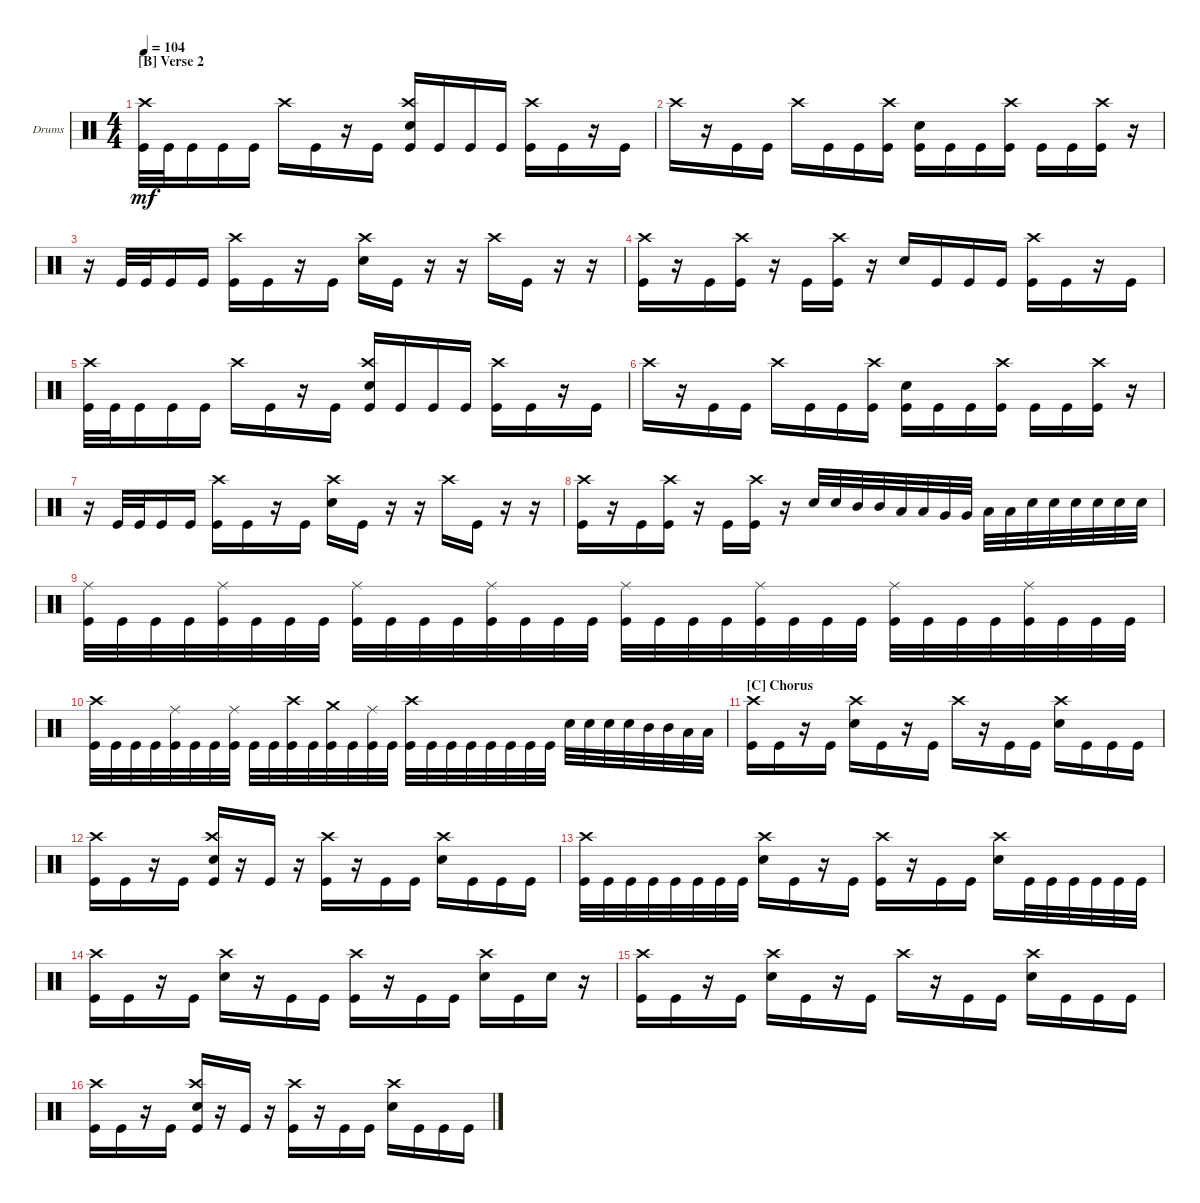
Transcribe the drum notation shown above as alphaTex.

\bracketExtendMode groupsimilarinstruments
\firstSystemTrackNameOrientation horizontal
\otherSystemsTrackNameOrientation horizontal
\track ("Drumkit" "Drums") {instrument percussion}
\staff {score}
\articulation defaults
\ts (4 4)
\section ("B" "Verse 2")
\tempo 104
\clef neutral
\ks c
("Kick (hit)" "Crash high (hit)").32{dy mf} "Kick (hit)".32 "Kick (hit)".16 "Kick (hit)".16 "Kick (hit)".16 "Crash high (hit)".16 "Kick (hit)".16 r.16 "Kick (hit)".16 ("Snare (hit) 2" "Kick (hit)" "Crash high (hit)").16 "Kick (hit)".16 "Kick (hit)".16 "Kick (hit)".16 ("Kick (hit)" "Crash high (hit)").16 "Kick (hit)".16 r.16 "Kick (hit)".16 |
"Crash high (hit)".16 r.16 "Kick (hit)".16 "Kick (hit)".16 "Crash high (hit)".16 "Kick (hit)".16 "Kick (hit)".16 ("Kick (hit)" "Crash high (hit)").16 ("Snare (hit) 2" "Kick (hit)").16 "Kick (hit)".16 "Kick (hit)".16 ("Kick (hit)" "Crash high (hit)").16 "Kick (hit)".16 "Kick (hit)".16 ("Kick (hit)" "Crash high (hit)").16 r.16 |
r.16 "Kick (hit)".32 "Kick (hit)".32 "Kick (hit)".16 "Kick (hit)".16 ("Kick (hit)" "Crash high (hit)").16 "Kick (hit)".16 r.16 "Kick (hit)".16 ("Snare (hit) 2" "Crash high (hit)").16 "Kick (hit)".16 r.16 r.16 "Crash high (hit)".16 "Kick (hit)".16 r.16 r.16 |
("Kick (hit)" "Crash high (hit)").16 r.16 "Kick (hit)".16 ("Kick (hit)" "Crash high (hit)").16 r.16 "Kick (hit)".16 ("Kick (hit)" "Crash high (hit)").16 r.16 "Snare (hit) 2".16 "Kick (hit)".16 "Kick (hit)".16 "Kick (hit)".16 ("Kick (hit)" "Crash high (hit)").16 "Kick (hit)".16 r.16 "Kick (hit)".16 |
("Kick (hit)" "Crash high (hit)").32 "Kick (hit)".32 "Kick (hit)".16 "Kick (hit)".16 "Kick (hit)".16 "Crash high (hit)".16 "Kick (hit)".16 r.16 "Kick (hit)".16 ("Snare (hit) 2" "Kick (hit)" "Crash high (hit)").16 "Kick (hit)".16 "Kick (hit)".16 "Kick (hit)".16 ("Kick (hit)" "Crash high (hit)").16 "Kick (hit)".16 r.16 "Kick (hit)".16 |
"Crash high (hit)".16 r.16 "Kick (hit)".16 "Kick (hit)".16 "Crash high (hit)".16 "Kick (hit)".16 "Kick (hit)".16 ("Kick (hit)" "Crash high (hit)").16 ("Snare (hit) 2" "Kick (hit)").16 "Kick (hit)".16 "Kick (hit)".16 ("Kick (hit)" "Crash high (hit)").16 "Kick (hit)".16 "Kick (hit)".16 ("Kick (hit)" "Crash high (hit)").16 r.16 |
r.16 "Kick (hit)".32 "Kick (hit)".32 "Kick (hit)".16 "Kick (hit)".16 ("Kick (hit)" "Crash high (hit)").16 "Kick (hit)".16 r.16 "Kick (hit)".16 ("Snare (hit) 2" "Crash high (hit)").16 "Kick (hit)".16 r.16 r.16 "Crash high (hit)".16 "Kick (hit)".16 r.16 r.16 |
("Kick (hit)" "Crash high (hit)").16 r.16 "Kick (hit)".16 ("Kick (hit)" "Crash high (hit)").16 r.16 "Kick (hit)".16 ("Kick (hit)" "Crash high (hit)").16 r.16 "Snare (hit) 2".32 "Snare (hit) 2".32 "Mid Tom (hit)".32 "Mid Tom (hit)".32 "Low Tom (hit)".32 "Low Tom (hit)".32 "Very Low Tom (hit)".32 "Very Low Tom (hit)".32 "Low Tom (hit)".32 "Low Tom (hit)".32 "Snare (hit) 2".32 "Snare (hit) 2".32 "Snare (hit) 2".32 "Snare (hit) 2".32 "Snare (hit) 2".32 "Snare (hit) 2".32 |
("Kick (hit)" "Ride (middle)").32 "Kick (hit)".32 "Kick (hit)".32 "Kick (hit)".32 ("Kick (hit)" "Ride (middle)").32 "Kick (hit)".32 "Kick (hit)".32 "Kick (hit)".32 ("Kick (hit)" "Ride (middle)").32 "Kick (hit)".32 "Kick (hit)".32 "Kick (hit)".32 ("Kick (hit)" "Ride (middle)").32 "Kick (hit)".32 "Kick (hit)".32 "Kick (hit)".32 ("Kick (hit)" "Ride (middle)").32 "Kick (hit)".32 "Kick (hit)".32 "Kick (hit)".32 ("Kick (hit)" "Ride (middle)").32 "Kick (hit)".32 "Kick (hit)".32 "Kick (hit)".32 ("Kick (hit)" "Ride (middle)").32 "Kick (hit)".32 "Kick (hit)".32 "Kick (hit)".32 ("Kick (hit)" "Ride (middle)").32 "Kick (hit)".32 "Kick (hit)".32 "Kick (hit)".32 |
("Kick (hit)" "Crash high (hit)").32 "Kick (hit)".32 "Kick (hit)".32 "Kick (hit)".32 ("Kick (hit)" "Ride (middle)").32 "Kick (hit)".32 "Kick (hit)".32 ("Kick (hit)" "Ride (middle)").32 "Kick (hit)".32 "Kick (hit)".32 ("Kick (hit)" "Crash high (hit)").32 "Kick (hit)".32 ("Kick (hit)" "Crash medium (hit)").32 "Kick (hit)".32 ("Kick (hit)" "Ride (middle)").32 "Kick (hit)".32 ("Kick (hit)" "Crash high (hit)").32 "Kick (hit)".32 "Kick (hit)".32 "Kick (hit)".32 "Kick (hit)".32 "Kick (hit)".32 "Kick (hit)".32 "Kick (hit)".32 "Snare (hit) 2".32 "Snare (hit) 2".32 "Snare (hit) 2".32 "Snare (hit) 2".32 "Mid Tom (hit)".32 "Mid Tom (hit)".32 "Low Tom (hit)".32 "Low Tom (hit)".32 |
\section ("C" "Chorus")
("Kick (hit)" "Crash high (hit)").16 "Kick (hit)".16 r.16 "Kick (hit)".16 ("Snare (hit) 2" "Crash high (hit)").16 "Kick (hit)".16 r.16 "Kick (hit)".16 "Crash high (hit)".16 r.16 "Kick (hit)".16 "Kick (hit)".16 ("Snare (hit) 2" "Crash high (hit)").16 "Kick (hit)".16 "Kick (hit)".16 "Kick (hit)".16 |
("Kick (hit)" "Crash high (hit)").16 "Kick (hit)".16 r.16 "Kick (hit)".16 ("Snare (hit) 2" "Kick (hit)" "Crash high (hit)").16 r.16 "Kick (hit)".16 r.16 ("Kick (hit)" "Crash high (hit)").16 r.16 "Kick (hit)".16 "Kick (hit)".16 ("Snare (hit) 2" "Crash high (hit)").16 "Kick (hit)".16 "Kick (hit)".16 "Kick (hit)".16 |
("Kick (hit)" "Crash high (hit)").32 "Kick (hit)".32 "Kick (hit)".32 "Kick (hit)".32 "Kick (hit)".32 "Kick (hit)".32 "Kick (hit)".32 "Kick (hit)".32 ("Snare (hit) 2" "Crash high (hit)").16 "Kick (hit)".16 r.16 "Kick (hit)".16 ("Kick (hit)" "Crash high (hit)").16 r.16 "Kick (hit)".16 "Kick (hit)".16 ("Snare (hit) 2" "Crash high (hit)").16 "Kick (hit)".32 "Kick (hit)".32 "Kick (hit)".32 "Kick (hit)".32 "Kick (hit)".32 "Kick (hit)".32 |
("Kick (hit)" "Crash high (hit)").16 "Kick (hit)".16 r.16 "Kick (hit)".16 ("Snare (hit) 2" "Crash high (hit)").16 r.16 "Kick (hit)".16 "Kick (hit)".16 ("Kick (hit)" "Crash high (hit)").16 r.16 "Kick (hit)".16 "Kick (hit)".16 ("Snare (hit) 2" "Crash high (hit)").16 "Kick (hit)".16 "Snare (hit) 2".16 r.16 |
("Kick (hit)" "Crash high (hit)").16 "Kick (hit)".16 r.16 "Kick (hit)".16 ("Snare (hit) 2" "Crash high (hit)").16 "Kick (hit)".16 r.16 "Kick (hit)".16 "Crash high (hit)".16 r.16 "Kick (hit)".16 "Kick (hit)".16 ("Snare (hit) 2" "Crash high (hit)").16 "Kick (hit)".16 "Kick (hit)".16 "Kick (hit)".16 |
("Kick (hit)" "Crash high (hit)").16 "Kick (hit)".16 r.16 "Kick (hit)".16 ("Snare (hit) 2" "Kick (hit)" "Crash high (hit)").16 r.16 "Kick (hit)".16 r.16 ("Kick (hit)" "Crash high (hit)").16 r.16 "Kick (hit)".16 "Kick (hit)".16 ("Snare (hit) 2" "Crash high (hit)").16 "Kick (hit)".16 "Kick (hit)".16 "Kick (hit)".16
